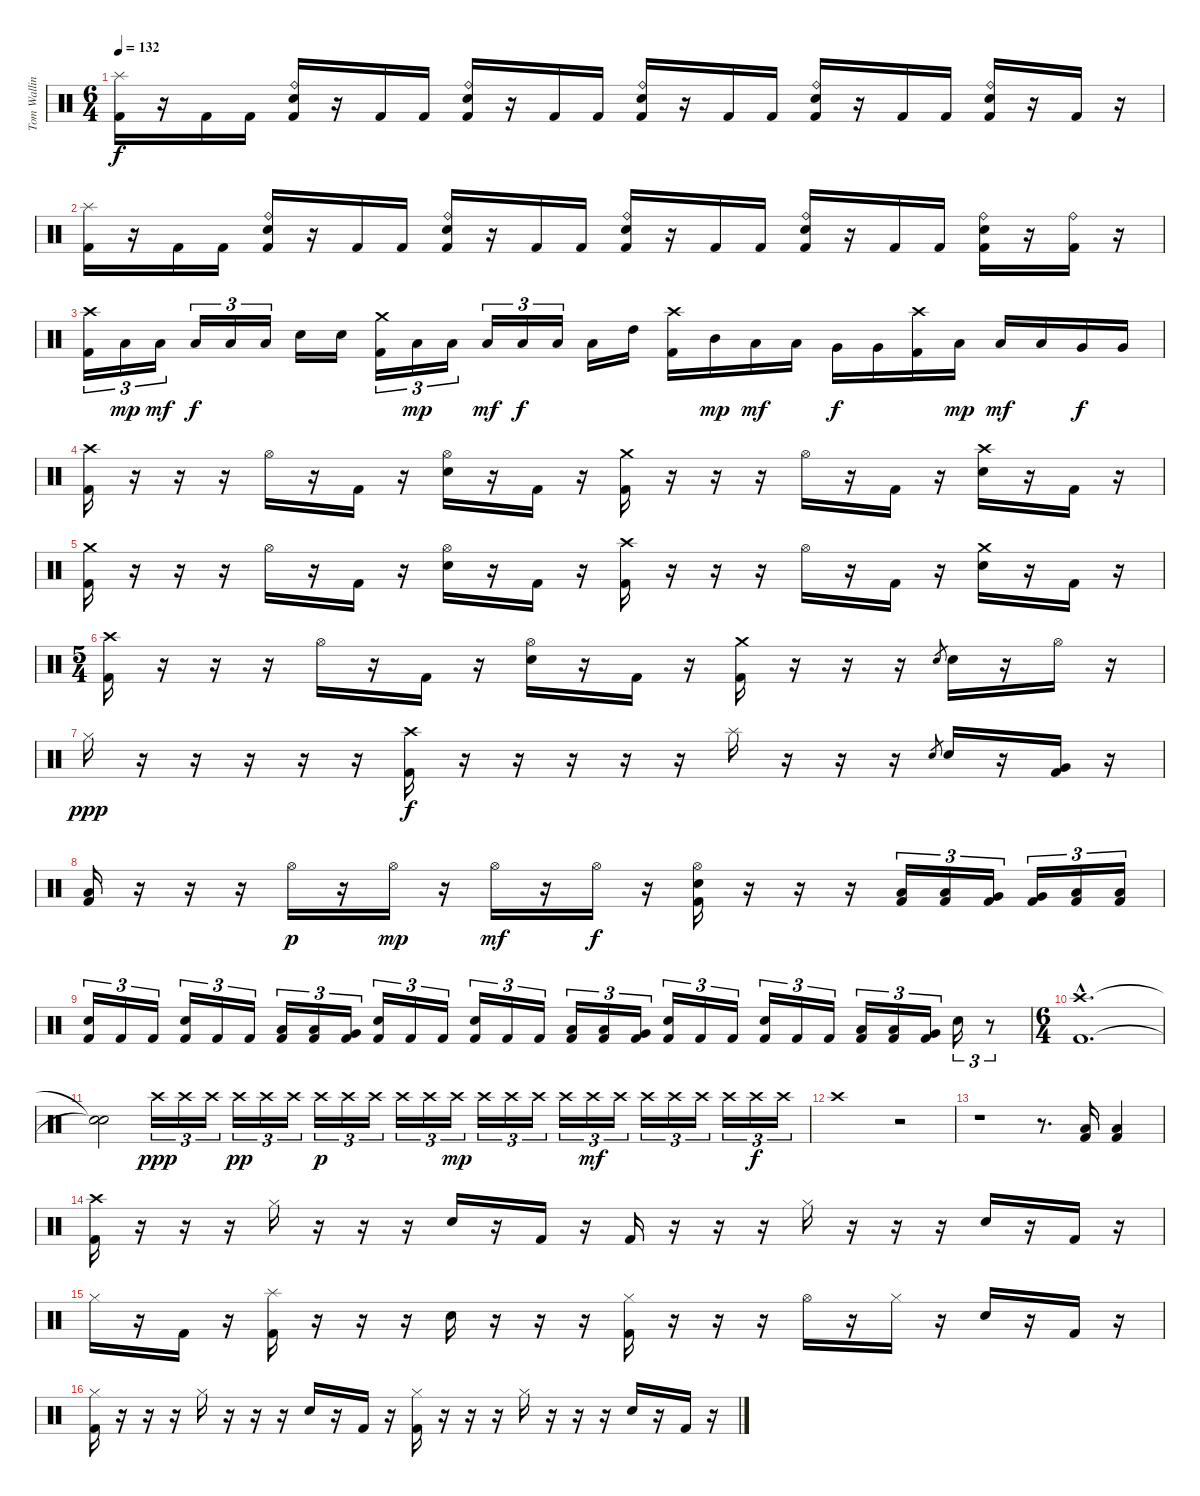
\track ("Tom Walling [Drums]" "Tom Wallin") {instrument percussion}
\staff {score}
\articulation defaults
\ts (6 4)
\tempo 132
\clef neutral
\ks c
("Splash (hit)" "Kick (hit) 2").16{dy f} r.16 "Kick (hit) 2".16 "Kick (hit) 2".16 ("Ride (bell)" "Electric Snare (hit)" "Kick (hit) 2").16 r.16 "Kick (hit) 2".16 "Kick (hit) 2".16 ("Ride (bell)" "Electric Snare (hit)" "Kick (hit) 2").16 r.16 "Kick (hit) 2".16 "Kick (hit) 2".16 ("Ride (bell)" "Electric Snare (hit)" "Kick (hit) 2").16 r.16 "Kick (hit) 2".16 "Kick (hit) 2".16 ("Ride (bell)" "Electric Snare (hit)" "Kick (hit) 2").16 r.16 "Kick (hit) 2".16 "Kick (hit) 2".16 ("Ride (bell)" "Electric Snare (hit)" "Kick (hit) 2").16 r.16 "Kick (hit) 2".16 r.16 |
("Splash (hit)" "Kick (hit) 2").16 r.16 "Kick (hit) 2".16 "Kick (hit) 2".16 ("Ride (bell)" "Electric Snare (hit)" "Kick (hit) 2").16 r.16 "Kick (hit) 2".16 "Kick (hit) 2".16 ("Ride (bell)" "Electric Snare (hit)" "Kick (hit) 2").16 r.16 "Kick (hit) 2".16 "Kick (hit) 2".16 ("Ride (bell)" "Electric Snare (hit)" "Kick (hit) 2").16 r.16 "Kick (hit) 2".16 "Kick (hit) 2".16 ("Ride (bell)" "Electric Snare (hit)" "Kick (hit) 2").16 r.16 "Kick (hit) 2".16 "Kick (hit) 2".16 ("Ride (bell)" "Electric Snare (hit)" "Kick (hit) 2").16 r.16 ("Ride (bell)" "Kick (hit) 2").16 r.16 |
("Crash high (hit)" "Kick (hit) 2").16{tu (3 2)} "Low Tom (hit)".16{tu (3 2) dy mp} "Low Tom (hit)".16{tu (3 2) dy mf} "Low Tom (hit)".16{tu (3 2) dy f} "Low Tom (hit)".16{tu (3 2)} "Low Tom (hit)".16{tu (3 2)} "Electric Snare (hit)".16 "Electric Snare (hit)".16 ("Crash medium (hit)" "Kick (hit) 2").16{tu (3 2)} "Low Tom (hit)".16{tu (3 2) dy mp} "Low Tom (hit)".16{tu (3 2)} "Low Tom (hit)".16{tu (3 2) dy mf} "Low Tom (hit)".16{tu (3 2) dy f} "Low Tom (hit)".16{tu (3 2)} "Low Tom (hit)".16 "High Tom (hit)".16 ("Crash high (hit)" "Kick (hit) 2").16 "Mid Tom (hit)".16{dy mp} "Low Tom (hit)".16{dy mf} "Low Tom (hit)".16 "Very Low Tom (hit)".16{dy f} "Very Low Tom (hit)".16 ("Crash high (hit)" "Kick (hit) 2").16 "Low Tom (hit)".16{dy mp} "Low Tom (hit)".16{dy mf} "Low Tom (hit)".16 "Very Low Tom (hit)".16{dy f} "Very Low Tom (hit)".16 |
("Crash high (hit)" "Kick (hit) 2").16 r.16 r.16 r.16 "Hi-Hat (open)".16 r.16 "Kick (hit) 2".16 r.16 ("Hi-Hat (open)" "Electric Snare (hit)").16 r.16 "Kick (hit) 2".16 r.16 ("Crash medium (hit)" "Kick (hit) 2").16 r.16 r.16 r.16 "Hi-Hat (open)".16 r.16 "Kick (hit) 2".16 r.16 ("Crash high (hit)" "Electric Snare (hit)").16 r.16 "Kick (hit) 2".16 r.16 |
("Crash medium (hit)" "Kick (hit) 2").16 r.16 r.16 r.16 "Hi-Hat (open)".16 r.16 "Kick (hit) 2".16 r.16 ("Hi-Hat (open)" "Electric Snare (hit)").16 r.16 "Kick (hit) 2".16 r.16 ("Crash high (hit)" "Kick (hit) 2").16 r.16 r.16 r.16 "Hi-Hat (open)".16 r.16 "Kick (hit) 2".16 r.16 ("Crash medium (hit)" "Electric Snare (hit)").16 r.16 "Kick (hit) 2".16 r.16 |
\ts (5 4)
("Crash high (hit)" "Kick (hit) 2").16 r.16 r.16 r.16 "Hi-Hat (open)".16 r.16 "Kick (hit) 2".16 r.16 ("Hi-Hat (open)" "Electric Snare (hit)").16 r.16 "Kick (hit) 2".16 r.16 ("Crash medium (hit)" "Kick (hit) 2").16 r.16 r.16 r.16 "Electric Snare (hit)".8{gr} "Electric Snare (hit)".16 r.16 "Hi-Hat (open)".16 r.16 |
"Hi-Hat (closed)".16{dy ppp} r.16 r.16 r.16 r.16 r.16 ("Crash high (hit)" "Kick (hit) 2").16{dy f} r.16 r.16 r.16 r.16 r.16 "Splash (hit)".16 r.16 r.16 r.16 "Electric Snare (hit)".8{gr} "Electric Snare (hit)".16 r.16 ("Very Low Tom (hit)" "Kick (hit) 2").16 r.16 |
("Low Floor Tom (hit)" "Kick (hit) 2").16 r.16 r.16 r.16 "Hi-Hat (open)".16{dy p} r.16 "Hi-Hat (open)".16{dy mp} r.16 "Hi-Hat (open)".16{dy mf} r.16 "Hi-Hat (open)".16{dy f} r.16 ("Hi-Hat (open)" "Electric Snare (hit)" "Kick (hit) 2").16 r.16 r.16 r.16 ("Low Tom (hit)" "Kick (hit) 2").16{tu (3 2)} ("Low Tom (hit)" "Kick (hit) 2").16{tu (3 2)} ("Very Low Tom (hit)" "Kick (hit) 2").16{tu (3 2)} ("Very Low Tom (hit)" "Kick (hit) 2").16{tu (3 2)} ("Low Floor Tom (hit)" "Kick (hit) 2").16{tu (3 2)} ("Low Floor Tom (hit)" "Kick (hit) 2").16{tu (3 2)} |
("Electric Snare (hit)" "Kick (hit) 2").16{tu (3 2)} "Kick (hit) 2".16{tu (3 2)} "Kick (hit) 2".16{tu (3 2)} ("Electric Snare (hit)" "Kick (hit) 2").16{tu (3 2)} "Kick (hit) 2".16{tu (3 2)} "Kick (hit) 2".16{tu (3 2)} ("Low Tom (hit)" "Kick (hit) 2").16{tu (3 2)} ("Low Tom (hit)" "Kick (hit) 2").16{tu (3 2)} ("Very Low Tom (hit)" "Kick (hit) 2").16{tu (3 2)} ("Electric Snare (hit)" "Kick (hit) 2").16{tu (3 2)} "Kick (hit) 2".16{tu (3 2)} "Kick (hit) 2".16{tu (3 2)} ("Electric Snare (hit)" "Kick (hit) 2").16{tu (3 2)} "Kick (hit) 2".16{tu (3 2)} "Kick (hit) 2".16{tu (3 2)} ("Low Tom (hit)" "Kick (hit) 2").16{tu (3 2)} ("Low Tom (hit)" "Kick (hit) 2").16{tu (3 2)} ("Very Low Tom (hit)" "Kick (hit) 2").16{tu (3 2)} ("Electric Snare (hit)" "Kick (hit) 2").16{tu (3 2)} "Kick (hit) 2".16{tu (3 2)} "Kick (hit) 2".16{tu (3 2)} ("Electric Snare (hit)" "Kick (hit) 2").16{tu (3 2)} "Kick (hit) 2".16{tu (3 2)} "Kick (hit) 2".16{tu (3 2)} ("Low Tom (hit)" "Kick (hit) 2").16{tu (3 2)} ("Low Tom (hit)" "Kick (hit) 2").16{tu (3 2)} ("Very Low Tom (hit)" "Kick (hit) 2").16{tu (3 2)} "Electric Snare (hit)".16{tu (3 2)} r.8{tu (3 2)} |
\ts (6 4)
("Crash high (hit)"{hac} "Kick (hit) 2"{hac}).1{d} |
("Snare (hit)"{t} "Snare (hit)"{t}).2 "Crash high (hit)".16{tu (3 2) dy ppp} "Crash high (hit)".16{tu (3 2)} "Crash high (hit)".16{tu (3 2)} "Crash high (hit)".16{tu (3 2) dy pp} "Crash high (hit)".16{tu (3 2)} "Crash high (hit)".16{tu (3 2)} "Crash high (hit)".16{tu (3 2) dy p} "Crash high (hit)".16{tu (3 2)} "Crash high (hit)".16{tu (3 2)} "Crash high (hit)".16{tu (3 2)} "Crash high (hit)".16{tu (3 2)} "Crash high (hit)".16{tu (3 2) dy mp} "Crash high (hit)".16{tu (3 2)} "Crash high (hit)".16{tu (3 2)} "Crash high (hit)".16{tu (3 2)} "Crash high (hit)".16{tu (3 2)} "Crash high (hit)".16{tu (3 2) dy mf} "Crash high (hit)".16{tu (3 2)} "Crash high (hit)".16{tu (3 2)} "Crash high (hit)".16{tu (3 2)} "Crash high (hit)".16{tu (3 2)} "Crash high (hit)".16{tu (3 2)} "Crash high (hit)".16{tu (3 2) dy f} "Crash high (hit)".16{tu (3 2)} |
"Crash high (hit)".1 r.2 |
r.1 r.8{d} ("Low Tom (hit)" "Kick (hit) 2").16 ("Low Tom (hit)" "Kick (hit) 2").4 |
("Crash high (hit)" "Kick (hit) 2").16 r.16 r.16 r.16 "Hi-Hat (closed)".16 r.16 r.16 r.16 "Electric Snare (hit)".16 r.16 "Kick (hit) 2".16 r.16 "Kick (hit) 2".16 r.16 r.16 r.16 "Hi-Hat (closed)".16 r.16 r.16 r.16 "Electric Snare (hit)".16 r.16 "Kick (hit) 2".16 r.16 |
"Hi-Hat (closed)".16 r.16 "Kick (hit) 2".16 r.16 ("Splash (hit)" "Kick (hit) 2").16 r.16 r.16 r.16 "Electric Snare (hit)".16 r.16 r.16 r.16 ("Hi-Hat (closed)" "Kick (hit) 2").16 r.16 r.16 r.16 "Hi-Hat (open)".16 r.16 "Hi-Hat (closed)".16 r.16 "Electric Snare (hit)".16 r.16 "Kick (hit) 2".16 r.16 |
("Hi-Hat (closed)" "Kick (hit) 2").16 r.16 r.16 r.16 "Hi-Hat (closed)".16 r.16 r.16 r.16 "Electric Snare (hit)".16 r.16 "Kick (hit) 2".16 r.16 ("Hi-Hat (closed)" "Kick (hit) 2").16 r.16 r.16 r.16 "Hi-Hat (closed)".16 r.16 r.16 r.16 "Electric Snare (hit)".16 r.16 "Kick (hit) 2".16 r.16
